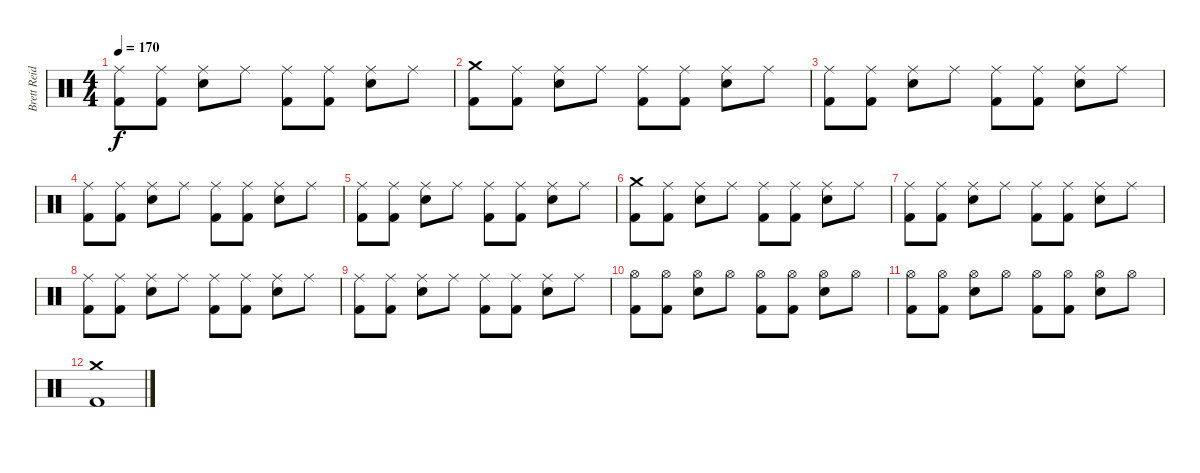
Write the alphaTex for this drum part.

\track ("Brett Reid" "Brett Reid") {instrument percussion}
\staff {score}
\articulation defaults
\ts (4 4)
\tempo 170
\clef neutral
\ks c
("Ride (middle)" "Kick (hit) 2").8{dy f} ("Ride (middle)" "Kick (hit) 2").8 ("Ride (middle)" "Snare (hit) 2").8 "Ride (middle)".8 ("Ride (middle)" "Kick (hit) 2").8 ("Ride (middle)" "Kick (hit) 2").8 ("Ride (middle)" "Snare (hit) 2").8 "Ride (middle)".8 |
("Crash medium (hit)" "Kick (hit) 2").8 ("Ride (middle)" "Kick (hit) 2").8 ("Ride (middle)" "Snare (hit) 2").8 "Ride (middle)".8 ("Ride (middle)" "Kick (hit) 2").8 ("Ride (middle)" "Kick (hit) 2").8 ("Ride (middle)" "Snare (hit) 2").8 "Ride (middle)".8 |
("Ride (middle)" "Kick (hit) 2").8 ("Ride (middle)" "Kick (hit) 2").8 ("Ride (middle)" "Snare (hit) 2").8 "Ride (middle)".8 ("Ride (middle)" "Kick (hit) 2").8 ("Ride (middle)" "Kick (hit) 2").8 ("Ride (middle)" "Snare (hit) 2").8 "Ride (middle)".8 |
("Ride (middle)" "Kick (hit) 2").8 ("Ride (middle)" "Kick (hit) 2").8 ("Ride (middle)" "Snare (hit) 2").8 "Ride (middle)".8 ("Ride (middle)" "Kick (hit) 2").8 ("Ride (middle)" "Kick (hit) 2").8 ("Ride (middle)" "Snare (hit) 2").8 "Ride (middle)".8 |
("Ride (middle)" "Kick (hit) 2").8 ("Ride (middle)" "Kick (hit) 2").8 ("Ride (middle)" "Snare (hit) 2").8 "Ride (middle)".8 ("Ride (middle)" "Kick (hit) 2").8 ("Ride (middle)" "Kick (hit) 2").8 ("Ride (middle)" "Snare (hit) 2").8 "Ride (middle)".8 |
("Crash medium (hit)" "Kick (hit) 2").8 ("Ride (middle)" "Kick (hit) 2").8 ("Ride (middle)" "Snare (hit) 2").8 "Ride (middle)".8 ("Ride (middle)" "Kick (hit) 2").8 ("Ride (middle)" "Kick (hit) 2").8 ("Ride (middle)" "Snare (hit) 2").8 "Ride (middle)".8 |
("Ride (middle)" "Kick (hit) 2").8 ("Ride (middle)" "Kick (hit) 2").8 ("Ride (middle)" "Snare (hit) 2").8 "Ride (middle)".8 ("Ride (middle)" "Kick (hit) 2").8 ("Ride (middle)" "Kick (hit) 2").8 ("Ride (middle)" "Snare (hit) 2").8 "Ride (middle)".8 |
("Ride (middle)" "Kick (hit) 2").8 ("Ride (middle)" "Kick (hit) 2").8 ("Ride (middle)" "Snare (hit) 2").8 "Ride (middle)".8 ("Ride (middle)" "Kick (hit) 2").8 ("Ride (middle)" "Kick (hit) 2").8 ("Ride (middle)" "Snare (hit) 2").8 "Ride (middle)".8 |
("Ride (middle)" "Kick (hit) 2").8 ("Ride (middle)" "Kick (hit) 2").8 ("Ride (middle)" "Snare (hit) 2").8 "Ride (middle)".8 ("Ride (middle)" "Kick (hit) 2").8 ("Ride (middle)" "Kick (hit) 2").8 ("Ride (middle)" "Snare (hit) 2").8 "Ride (middle)".8 |
("Hi-Hat (open)" "Kick (hit) 2").8 ("Hi-Hat (open)" "Kick (hit) 2").8 ("Hi-Hat (open)" "Snare (hit) 2").8 "Hi-Hat (open)".8 ("Hi-Hat (open)" "Kick (hit) 2").8 ("Hi-Hat (open)" "Kick (hit) 2").8 ("Hi-Hat (open)" "Snare (hit) 2").8 "Hi-Hat (open)".8 |
("Hi-Hat (open)" "Kick (hit) 2").8 ("Hi-Hat (open)" "Kick (hit) 2").8 ("Hi-Hat (open)" "Snare (hit) 2").8 "Hi-Hat (open)".8 ("Hi-Hat (open)" "Kick (hit) 2").8 ("Hi-Hat (open)" "Kick (hit) 2").8 ("Hi-Hat (open)" "Snare (hit) 2").8 "Hi-Hat (open)".8 |
("Crash medium (hit)" "Kick (hit) 2").1
